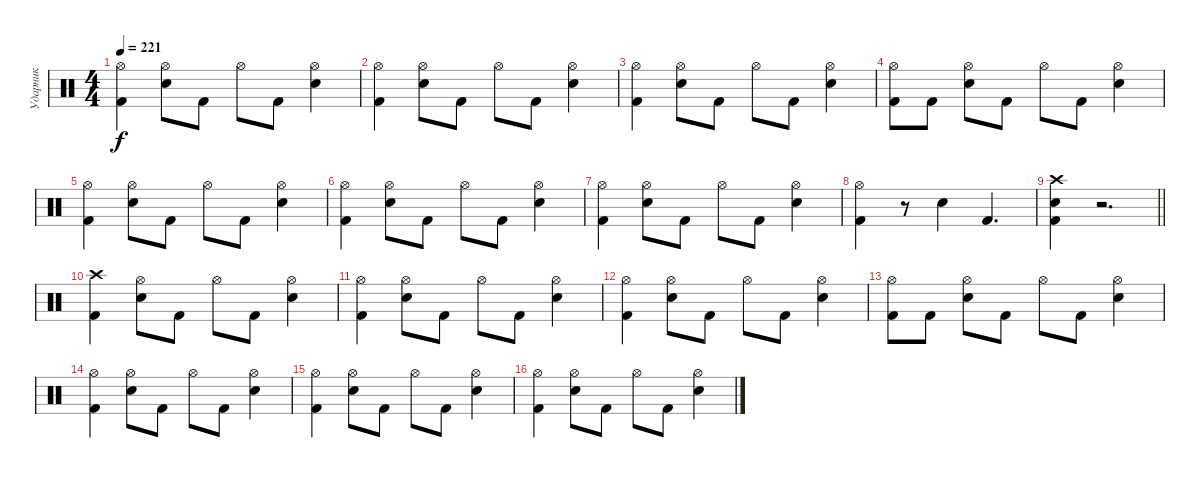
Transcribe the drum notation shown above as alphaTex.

\track ("Ударник" "Ударник") {instrument percussion}
\staff {score}
\articulation defaults
\ts (4 4)
\tempo 221
\clef neutral
\ks c
("Kick (hit) 2" "Hi-Hat (open)").4{dy f} ("Snare (hit) 2" "Hi-Hat (open)").8 "Kick (hit) 2".8 "Hi-Hat (open)".8 "Kick (hit) 2".8 ("Snare (hit) 2" "Hi-Hat (open)").4 |
("Kick (hit) 2" "Hi-Hat (open)").4 ("Snare (hit) 2" "Hi-Hat (open)").8 "Kick (hit) 2".8 "Hi-Hat (open)".8 "Kick (hit) 2".8 ("Snare (hit) 2" "Hi-Hat (open)").4 |
("Kick (hit) 2" "Hi-Hat (open)").4 ("Snare (hit) 2" "Hi-Hat (open)").8 "Kick (hit) 2".8 "Hi-Hat (open)".8 "Kick (hit) 2".8 ("Snare (hit) 2" "Hi-Hat (open)").4 |
("Kick (hit) 2" "Hi-Hat (open)").8 "Kick (hit) 2".8 ("Snare (hit) 2" "Hi-Hat (open)").8 "Kick (hit) 2".8 "Hi-Hat (open)".8 "Kick (hit) 2".8 ("Snare (hit) 2" "Hi-Hat (open)").4 |
("Kick (hit) 2" "Hi-Hat (open)").4 ("Snare (hit) 2" "Hi-Hat (open)").8 "Kick (hit) 2".8 "Hi-Hat (open)".8 "Kick (hit) 2".8 ("Snare (hit) 2" "Hi-Hat (open)").4 |
("Kick (hit) 2" "Hi-Hat (open)").4 ("Snare (hit) 2" "Hi-Hat (open)").8 "Kick (hit) 2".8 "Hi-Hat (open)".8 "Kick (hit) 2".8 ("Snare (hit) 2" "Hi-Hat (open)").4 |
("Kick (hit) 2" "Hi-Hat (open)").4 ("Snare (hit) 2" "Hi-Hat (open)").8 "Kick (hit) 2".8 "Hi-Hat (open)".8 "Kick (hit) 2".8 ("Snare (hit) 2" "Hi-Hat (open)").4 |
("Kick (hit) 2" "Hi-Hat (open)").4 r.8 "Snare (hit) 2".4 "Kick (hit) 2".4{d} |
\barLineRight lightlight
("Kick (hit) 2" "Snare (hit) 2" "Crash high (hit)").4 r.2{d} |
("Kick (hit) 2" "Crash high (hit)").4 ("Snare (hit) 2" "Hi-Hat (open)").8 "Kick (hit) 2".8 "Hi-Hat (open)".8 "Kick (hit) 2".8 ("Snare (hit) 2" "Hi-Hat (open)").4 |
("Kick (hit) 2" "Hi-Hat (open)").4 ("Snare (hit) 2" "Hi-Hat (open)").8 "Kick (hit) 2".8 "Hi-Hat (open)".8 "Kick (hit) 2".8 ("Snare (hit) 2" "Hi-Hat (open)").4 |
("Kick (hit) 2" "Hi-Hat (open)").4 ("Snare (hit) 2" "Hi-Hat (open)").8 "Kick (hit) 2".8 "Hi-Hat (open)".8 "Kick (hit) 2".8 ("Snare (hit) 2" "Hi-Hat (open)").4 |
("Kick (hit) 2" "Hi-Hat (open)").8 "Kick (hit) 2".8 ("Snare (hit) 2" "Hi-Hat (open)").8 "Kick (hit) 2".8 "Hi-Hat (open)".8 "Kick (hit) 2".8 ("Snare (hit) 2" "Hi-Hat (open)").4 |
("Kick (hit) 2" "Hi-Hat (open)").4 ("Snare (hit) 2" "Hi-Hat (open)").8 "Kick (hit) 2".8 "Hi-Hat (open)".8 "Kick (hit) 2".8 ("Snare (hit) 2" "Hi-Hat (open)").4 |
("Kick (hit) 2" "Hi-Hat (open)").4 ("Snare (hit) 2" "Hi-Hat (open)").8 "Kick (hit) 2".8 "Hi-Hat (open)".8 "Kick (hit) 2".8 ("Snare (hit) 2" "Hi-Hat (open)").4 |
("Kick (hit) 2" "Hi-Hat (open)").4 ("Snare (hit) 2" "Hi-Hat (open)").8 "Kick (hit) 2".8 "Hi-Hat (open)".8 "Kick (hit) 2".8 ("Snare (hit) 2" "Hi-Hat (open)").4
